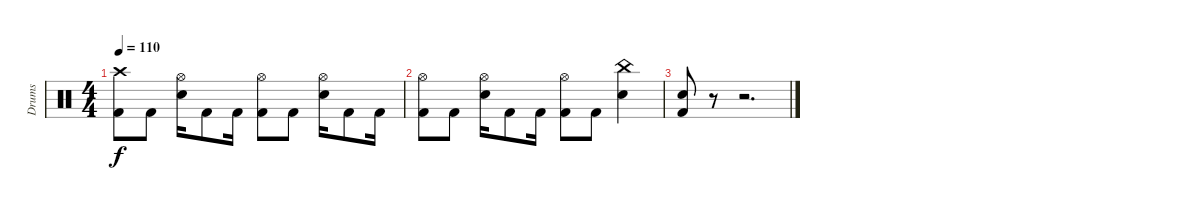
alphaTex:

\track ("Drums" "Drums") {instrument percussion}
\staff {score}
\articulation defaults
\ts (4 4)
\tempo 110
\clef neutral
\ks c
("Crash high (hit)" "Kick (hit) 2").8{dy f} "Kick (hit) 2".8 ("Hi-Hat (open)" "Electric Snare (hit)").16 "Kick (hit) 2".8 "Kick (hit) 2".16 ("Hi-Hat (open)" "Kick (hit) 2").8 "Kick (hit) 2".8 ("Hi-Hat (open)" "Electric Snare (hit)").16 "Kick (hit) 2".8 "Kick (hit) 2".16 |
("Hi-Hat (open)" "Kick (hit) 2").8 "Kick (hit) 2".8 ("Hi-Hat (open)" "Electric Snare (hit)").16 "Kick (hit) 2".8 "Kick (hit) 2".16 ("Hi-Hat (open)" "Kick (hit) 2").8 "Kick (hit) 2".8 ("China (hit)" "Electric Snare (hit)").4 |
("Electric Snare (hit)" "Kick (hit) 2").8 r.8 r.2{d}
